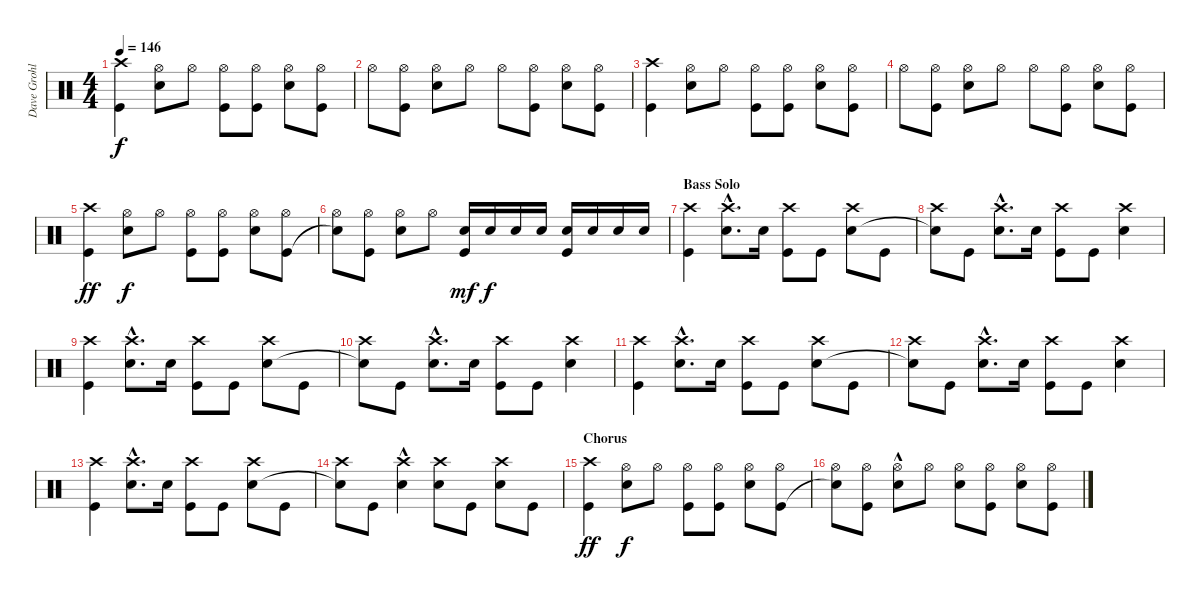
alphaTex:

\track ("Dave Grohl - Drums" "Dave Grohl") {instrument percussion}
\staff {score}
\articulation defaults
\ts (4 4)
\tempo 146
\clef neutral
\ks c
("Crash high (hit)" "Kick (hit)").4{dy f} ("Hi-Hat (open)" "Electric Snare (hit)").8 "Hi-Hat (open)".8 ("Hi-Hat (open)" "Kick (hit)").8 ("Hi-Hat (open)" "Kick (hit)").8 ("Hi-Hat (open)" "Electric Snare (hit)").8 ("Hi-Hat (open)" "Kick (hit)").8 |
"Hi-Hat (open)".8 ("Hi-Hat (open)" "Kick (hit)").8 ("Hi-Hat (open)" "Electric Snare (hit)").8 "Hi-Hat (open)".8 "Hi-Hat (open)".8 ("Hi-Hat (open)" "Kick (hit)").8 ("Hi-Hat (open)" "Electric Snare (hit)").8 ("Hi-Hat (open)" "Kick (hit)").8 |
("Crash high (hit)" "Kick (hit)").4 ("Hi-Hat (open)" "Electric Snare (hit)").8 "Hi-Hat (open)".8 ("Hi-Hat (open)" "Kick (hit)").8 ("Hi-Hat (open)" "Kick (hit)").8 ("Hi-Hat (open)" "Electric Snare (hit)").8 ("Hi-Hat (open)" "Kick (hit)").8 |
"Hi-Hat (open)".8 ("Hi-Hat (open)" "Kick (hit)").8 ("Hi-Hat (open)" "Electric Snare (hit)").8 "Hi-Hat (open)".8 "Hi-Hat (open)".8 ("Hi-Hat (open)" "Kick (hit)").8 ("Hi-Hat (open)" "Electric Snare (hit)").8 ("Hi-Hat (open)" "Kick (hit)").8 |
("Crash high (hit)" "Kick (hit)").4{dy ff} ("Hi-Hat (open)" "Electric Snare (hit)").8{dy f} "Hi-Hat (open)".8 ("Hi-Hat (open)" "Kick (hit)").8 ("Hi-Hat (open)" "Kick (hit)").8 ("Hi-Hat (open)" "Electric Snare (hit)").8 ("Hi-Hat (open)" "Kick (hit)").8 |
("Hi-Hat (open)" "Snare (hit)"{t}).8 ("Hi-Hat (open)" "Kick (hit)").8 ("Hi-Hat (open)" "Electric Snare (hit)").8 "Hi-Hat (open)".8 ("Electric Snare (hit)" "Kick (hit)").16{dy mf} "Electric Snare (hit)".16{dy f} "Electric Snare (hit)".16 "Electric Snare (hit)".16 ("Electric Snare (hit)" "Kick (hit)").16 "Electric Snare (hit)".16 "Electric Snare (hit)".16 "Electric Snare (hit)".16 |
\section ("" "Bass Solo")
("Crash high (hit)" "Kick (hit)").4 ("Crash high (hit)" "Electric Snare (hit)"{hac}).8{d} "Electric Snare (hit)".16 ("Crash high (hit)" "Kick (hit)").8 "Kick (hit)".8 ("Crash high (hit)" "Electric Snare (hit)").8 "Kick (hit)".8 |
("Crash high (hit)" "Snare (hit)"{t}).8 "Kick (hit)".8 ("Crash high (hit)"{hac} "Electric Snare (hit)"{hac}).8{d} "Electric Snare (hit)".16 ("Crash high (hit)" "Kick (hit)").8 "Kick (hit)".8 ("Crash high (hit)" "Electric Snare (hit)").4 |
("Crash high (hit)" "Kick (hit)").4 ("Crash high (hit)" "Electric Snare (hit)"{hac}).8{d} "Electric Snare (hit)".16 ("Crash high (hit)" "Kick (hit)").8 "Kick (hit)".8 ("Crash high (hit)" "Electric Snare (hit)").8 "Kick (hit)".8 |
("Crash high (hit)" "Snare (hit)"{t}).8 "Kick (hit)".8 ("Crash high (hit)"{hac} "Electric Snare (hit)"{hac}).8{d} "Electric Snare (hit)".16 ("Crash high (hit)" "Kick (hit)").8 "Kick (hit)".8 ("Crash high (hit)" "Electric Snare (hit)").4 |
("Crash high (hit)" "Kick (hit)").4 ("Crash high (hit)" "Electric Snare (hit)"{hac}).8{d} "Electric Snare (hit)".16 ("Crash high (hit)" "Kick (hit)").8 "Kick (hit)".8 ("Crash high (hit)" "Electric Snare (hit)").8 "Kick (hit)".8 |
("Crash high (hit)" "Snare (hit)"{t}).8 "Kick (hit)".8 ("Crash high (hit)"{hac} "Electric Snare (hit)"{hac}).8{d} "Electric Snare (hit)".16 ("Crash high (hit)" "Kick (hit)").8 "Kick (hit)".8 ("Crash high (hit)" "Electric Snare (hit)").4 |
("Crash high (hit)" "Kick (hit)").4 ("Crash high (hit)" "Electric Snare (hit)"{hac}).8{d} "Electric Snare (hit)".16 ("Crash high (hit)" "Kick (hit)").8 "Kick (hit)".8 ("Crash high (hit)" "Electric Snare (hit)").8 "Kick (hit)".8 |
("Crash high (hit)" "Snare (hit)"{t}).8 "Kick (hit)".8 ("Crash high (hit)"{hac} "Electric Snare (hit)").4 ("Crash high (hit)" "Electric Snare (hit)").8 "Kick (hit)".8 ("Crash high (hit)" "Electric Snare (hit)").8 "Kick (hit)".8 |
\section ("" "Chorus")
("Crash high (hit)" "Kick (hit)").4{dy ff} ("Hi-Hat (open)" "Electric Snare (hit)").8{dy f} "Hi-Hat (open)".8 ("Hi-Hat (open)" "Kick (hit)").8 ("Hi-Hat (open)" "Kick (hit)").8 ("Hi-Hat (open)" "Electric Snare (hit)").8 ("Hi-Hat (open)" "Kick (hit)").8 |
("Hi-Hat (open)" "Snare (hit)"{t}).8 ("Hi-Hat (open)" "Kick (hit)").8 ("Hi-Hat (open)"{hac} "Electric Snare (hit)").8 "Hi-Hat (open)".8 ("Hi-Hat (open)" "Electric Snare (hit)").8 ("Hi-Hat (open)" "Kick (hit)").8 ("Hi-Hat (open)" "Electric Snare (hit)").8 ("Hi-Hat (open)" "Kick (hit)").8
